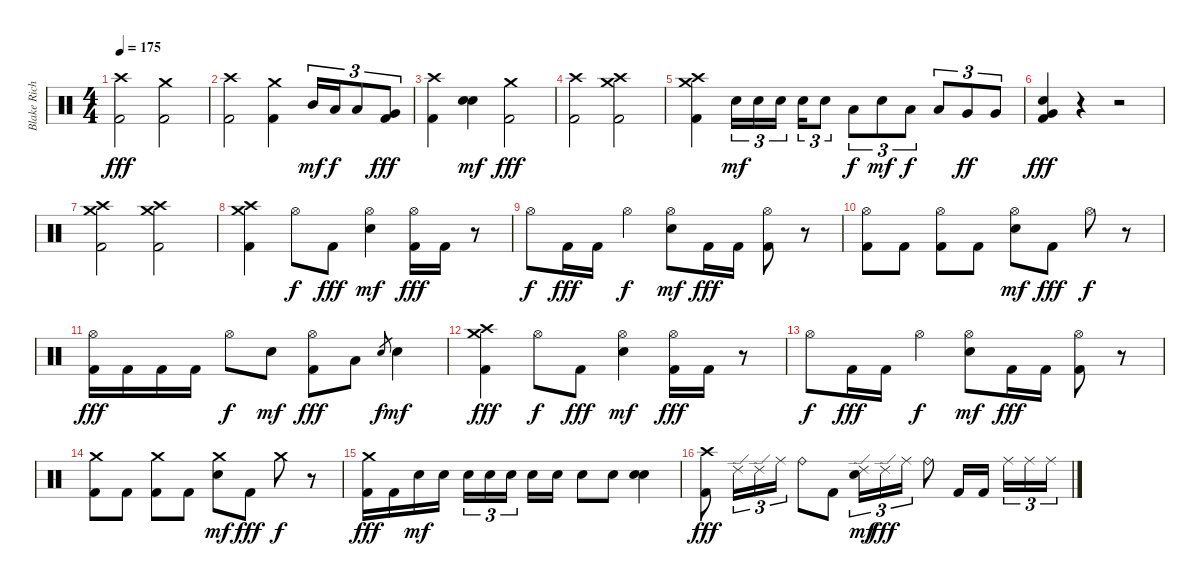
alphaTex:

\track ("Blake Richardson" "Blake Rich") {instrument percussion}
\staff {score}
\articulation defaults
\ts (4 4)
\tempo 175
\clef neutral
\ks c
("Crash high (hit)" "Kick (hit) 2").2{dy fff} ("Crash medium (hit)" "Kick (hit) 2").2 |
("Crash high (hit)" "Kick (hit) 2").2 ("Crash medium (hit)" "Kick (hit) 2").4 "Mid Tom (hit)".16{tu (3 2) dy mf} "Low Tom (hit)".16{tu (3 2) dy f} "Low Tom (hit)".8{tu (3 2)} ("Very Low Tom (hit)" "Kick (hit) 2").8{tu (3 2) dy fff} |
("Crash high (hit)" "Kick (hit) 2").4 ("Electric Snare (hit)" "Electric Snare (hit)").4{bu 480 dy mf} ("Crash medium (hit)" "Kick (hit) 2").2{dy fff} |
("Crash high (hit)" "Kick (hit) 2").2 ("Crash medium (hit)" "Crash high (hit)" "Kick (hit) 2").2 |
("Crash medium (hit)" "Crash high (hit)" "Kick (hit) 2").4 "Electric Snare (hit)".16{tu (3 2) dy mf} "Electric Snare (hit)".16{tu (3 2)} "Electric Snare (hit)".16{tu (3 2)} "Electric Snare (hit)".16{tu (3 2)} "Electric Snare (hit)".8{tu (3 2)} "Low Tom (hit)".8{tu (3 2) dy f} "Electric Snare (hit)".8{tu (3 2) dy mf} "Low Tom (hit)".8{tu (3 2) dy f} "Low Tom (hit)".8{tu (3 2)} "Very Low Tom (hit)".8{tu (3 2) dy ff} "Very Low Tom (hit)".8{tu (3 2)} |
("Very Low Tom (hit)" "Electric Snare (hit)" "Kick (hit) 2").4{dy fff} r.4 r.2 |
("Crash medium (hit)" "Crash high (hit)" "Kick (hit) 2").2 ("Crash medium (hit)" "Crash high (hit)" "Kick (hit) 2").2 |
("Crash medium (hit)" "Crash high (hit)" "Kick (hit) 2").4 "Hi-Hat (open)".8{dy f} "Kick (hit) 2".8{dy fff} ("Hi-Hat (open)" "Electric Snare (hit)").4{dy mf} ("Hi-Hat (open)" "Kick (hit) 2").16{dy fff} "Kick (hit) 2".16 r.8 |
"Hi-Hat (open)".8{dy f} "Kick (hit) 2".16{dy fff} "Kick (hit) 2".16 "Hi-Hat (open)".4{dy f} ("Hi-Hat (open)" "Electric Snare (hit)").8{dy mf} "Kick (hit) 2".16{dy fff} "Kick (hit) 2".16 ("Hi-Hat (open)" "Kick (hit) 2").8 r.8 |
("Hi-Hat (open)" "Kick (hit) 2").8 "Kick (hit) 2".8 ("Hi-Hat (open)" "Kick (hit) 2").8 "Kick (hit) 2".8 ("Hi-Hat (open)" "Electric Snare (hit)").8{dy mf} "Kick (hit) 2".8{dy fff} "Hi-Hat (open)".8{dy f} r.8 |
("Hi-Hat (open)" "Kick (hit) 2").16{dy fff} "Kick (hit) 2".16 "Kick (hit) 2".16 "Kick (hit) 2".16 "Hi-Hat (open)".8{dy f} "Electric Snare (hit)".8{dy mf} ("Hi-Hat (open)" "Kick (hit) 2").8{dy fff} "Low Tom (hit)".8 "Electric Snare (hit)".8{gr dy f} "Electric Snare (hit)".4{dy mf} |
("Crash medium (hit)" "Crash high (hit)" "Kick (hit) 2").4{dy fff} "Hi-Hat (open)".8{dy f} "Kick (hit) 2".8{dy fff} ("Hi-Hat (open)" "Electric Snare (hit)").4{dy mf} ("Hi-Hat (open)" "Kick (hit) 2").16{dy fff} "Kick (hit) 2".16 r.8 |
"Hi-Hat (open)".8{dy f} "Kick (hit) 2".16{dy fff} "Kick (hit) 2".16 "Hi-Hat (open)".4{dy f} ("Hi-Hat (open)" "Electric Snare (hit)").8{dy mf} "Kick (hit) 2".16{dy fff} "Kick (hit) 2".16 ("Hi-Hat (open)" "Kick (hit) 2").8 r.8 |
("Crash medium (hit)" "Kick (hit) 2").8 "Kick (hit) 2".8 ("Crash medium (hit)" "Kick (hit) 2").8 "Kick (hit) 2".8 ("Crash medium (hit)" "Electric Snare (hit)").8{dy mf} "Kick (hit) 2".8{dy fff} "Crash medium (hit)".8{dy f} r.8 |
("Crash medium (hit)" "Kick (hit) 2").16{dy fff} "Kick (hit) 2".16 "Electric Snare (hit)".16{dy mf} "Electric Snare (hit)".16 "Electric Snare (hit)".16{tu (3 2)} "Electric Snare (hit)".16{tu (3 2)} "Electric Snare (hit)".16{tu (3 2)} "Electric Snare (hit)".16 "Electric Snare (hit)".16 "Electric Snare (hit)".8 "Electric Snare (hit)".8 ("Electric Snare (hit)" "Electric Snare (hit)").4{bu 480} |
("Crash high (hit)" "Kick (hit) 2").8{dy fff} "Ride (edge) 2".16{tu (3 2)} "Ride (edge) 2".16{tu (3 2)} "Ride (middle)".16{tu (3 2)} "Ride (bell)".8 "Kick (hit) 2".8 ("Ride (edge) 2" "Electric Snare (hit)").16{tu (3 2) dy mf} "Ride (edge) 2".16{tu (3 2) dy fff} "Ride (middle)".16{tu (3 2)} "Ride (bell)".8 "Kick (hit) 2".16 "Kick (hit) 2".16 "Ride (middle)".16{tu (3 2)} "Ride (middle)".16{tu (3 2)} "Ride (middle)".16{tu (3 2)}
